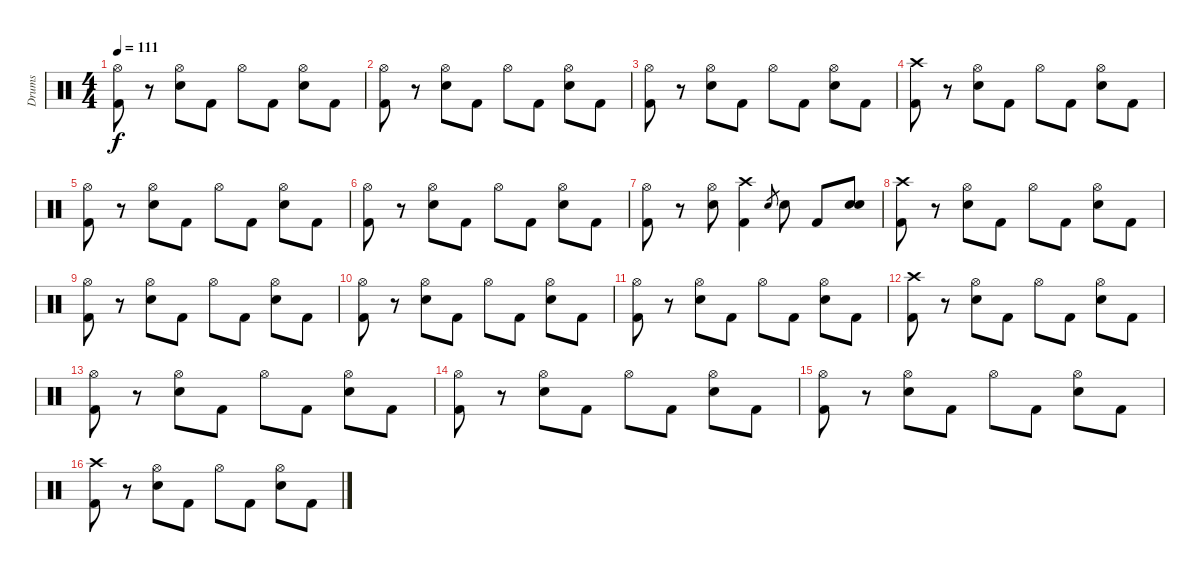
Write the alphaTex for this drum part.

\track ("Drums" "Drums") {instrument percussion}
\staff {score}
\articulation defaults
\ts (4 4)
\tempo 111
\clef neutral
\ks c
("Hi-Hat (open)" "Kick (hit) 2").8{dy f} r.8 ("Hi-Hat (open)" "Snare (hit) 2").8 "Kick (hit) 2".8 "Hi-Hat (open)".8 "Kick (hit) 2".8 ("Hi-Hat (open)" "Snare (hit) 2").8 "Kick (hit) 2".8 |
("Hi-Hat (open)" "Kick (hit) 2").8 r.8 ("Hi-Hat (open)" "Snare (hit) 2").8 "Kick (hit) 2".8 "Hi-Hat (open)".8 "Kick (hit) 2".8 ("Hi-Hat (open)" "Snare (hit) 2").8 "Kick (hit) 2".8 |
("Hi-Hat (open)" "Kick (hit) 2").8 r.8 ("Hi-Hat (open)" "Snare (hit) 2").8 "Kick (hit) 2".8 "Hi-Hat (open)".8 "Kick (hit) 2".8 ("Hi-Hat (open)" "Snare (hit) 2").8 "Kick (hit) 2".8 |
("Crash high (hit)" "Kick (hit) 2").8 r.8 ("Hi-Hat (open)" "Snare (hit) 2").8 "Kick (hit) 2".8 "Hi-Hat (open)".8 "Kick (hit) 2".8 ("Hi-Hat (open)" "Snare (hit) 2").8 "Kick (hit) 2".8 |
("Hi-Hat (open)" "Kick (hit) 2").8 r.8 ("Hi-Hat (open)" "Snare (hit) 2").8 "Kick (hit) 2".8 "Hi-Hat (open)".8 "Kick (hit) 2".8 ("Hi-Hat (open)" "Snare (hit) 2").8 "Kick (hit) 2".8 |
("Hi-Hat (open)" "Kick (hit) 2").8 r.8 ("Hi-Hat (open)" "Snare (hit) 2").8 "Kick (hit) 2".8 "Hi-Hat (open)".8 "Kick (hit) 2".8 ("Hi-Hat (open)" "Snare (hit) 2").8 "Kick (hit) 2".8 |
("Hi-Hat (open)" "Kick (hit) 2").8 r.8 ("Hi-Hat (open)" "Snare (hit) 2").8 ("Crash high (hit)" "Kick (hit) 2").4 "Snare (hit) 2".8{gr} "Snare (hit) 2".8 "Kick (hit) 2".8 ("Snare (hit) 2" "Snare (hit) 2").8 |
("Crash high (hit)" "Kick (hit) 2").8 r.8 ("Hi-Hat (open)" "Snare (hit) 2").8 "Kick (hit) 2".8 "Hi-Hat (open)".8 "Kick (hit) 2".8 ("Hi-Hat (open)" "Snare (hit) 2").8 "Kick (hit) 2".8 |
("Hi-Hat (open)" "Kick (hit) 2").8 r.8 ("Hi-Hat (open)" "Snare (hit) 2").8 "Kick (hit) 2".8 "Hi-Hat (open)".8 "Kick (hit) 2".8 ("Hi-Hat (open)" "Snare (hit) 2").8 "Kick (hit) 2".8 |
("Hi-Hat (open)" "Kick (hit) 2").8 r.8 ("Hi-Hat (open)" "Snare (hit) 2").8 "Kick (hit) 2".8 "Hi-Hat (open)".8 "Kick (hit) 2".8 ("Hi-Hat (open)" "Snare (hit) 2").8 "Kick (hit) 2".8 |
("Hi-Hat (open)" "Kick (hit) 2").8 r.8 ("Hi-Hat (open)" "Snare (hit) 2").8 "Kick (hit) 2".8 "Hi-Hat (open)".8 "Kick (hit) 2".8 ("Hi-Hat (open)" "Snare (hit) 2").8 "Kick (hit) 2".8 |
("Crash high (hit)" "Kick (hit) 2").8 r.8 ("Hi-Hat (open)" "Snare (hit) 2").8 "Kick (hit) 2".8 "Hi-Hat (open)".8 "Kick (hit) 2".8 ("Hi-Hat (open)" "Snare (hit) 2").8 "Kick (hit) 2".8 |
("Hi-Hat (open)" "Kick (hit) 2").8 r.8 ("Hi-Hat (open)" "Snare (hit) 2").8 "Kick (hit) 2".8 "Hi-Hat (open)".8 "Kick (hit) 2".8 ("Hi-Hat (open)" "Snare (hit) 2").8 "Kick (hit) 2".8 |
("Hi-Hat (open)" "Kick (hit) 2").8 r.8 ("Hi-Hat (open)" "Snare (hit) 2").8 "Kick (hit) 2".8 "Hi-Hat (open)".8 "Kick (hit) 2".8 ("Hi-Hat (open)" "Snare (hit) 2").8 "Kick (hit) 2".8 |
("Hi-Hat (open)" "Kick (hit) 2").8 r.8 ("Hi-Hat (open)" "Snare (hit) 2").8 "Kick (hit) 2".8 "Hi-Hat (open)".8 "Kick (hit) 2".8 ("Hi-Hat (open)" "Snare (hit) 2").8 "Kick (hit) 2".8 |
("Crash high (hit)" "Kick (hit) 2").8 r.8 ("Hi-Hat (open)" "Snare (hit) 2").8 "Kick (hit) 2".8 "Hi-Hat (open)".8 "Kick (hit) 2".8 ("Hi-Hat (open)" "Snare (hit) 2").8 "Kick (hit) 2".8
